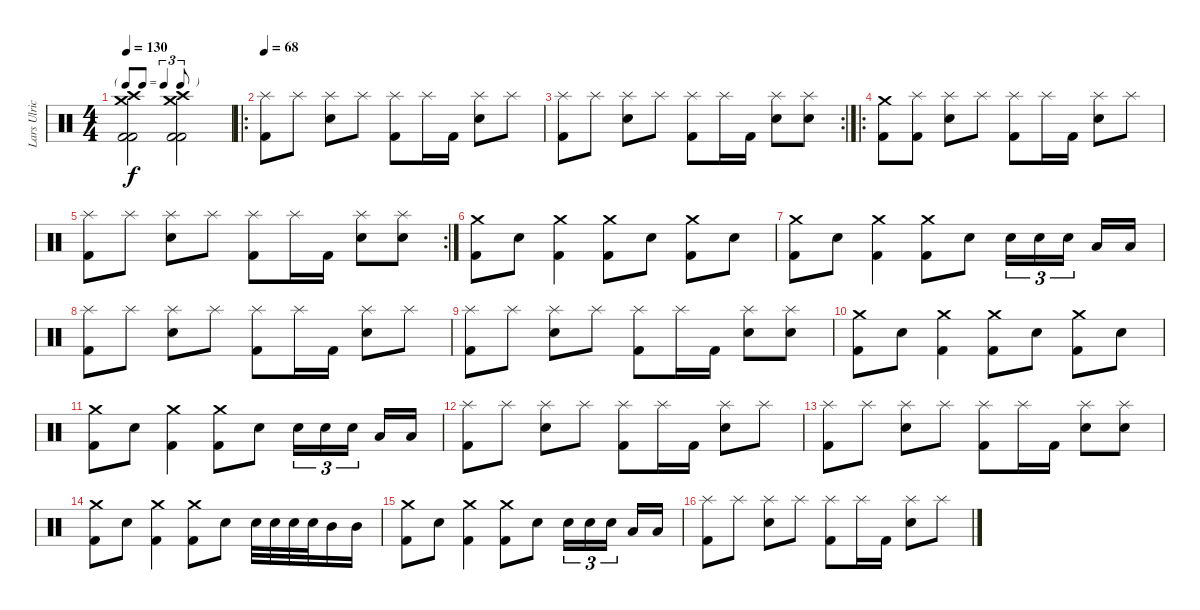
\track ("Lars Ulrich" "Lars Ulric") {instrument percussion}
\staff {score}
\articulation defaults
\ts (4 4)
\tf triplet8th
\tempo 130
\clef neutral
\ks c
("Crash medium (hit)" "Crash high (hit)" "Kick (hit) 2" "Kick (hit) 2").2{dy f} ("Crash medium (hit)" "Crash high (hit)" "Kick (hit) 2" "Kick (hit) 2").2 |
\ro
\tempo 68
("Splash (hit)" "Kick (hit) 2").8 "Splash (hit)".8 ("Splash (hit)" "Snare (hit) 2").8 "Splash (hit)".8 ("Splash (hit)" "Kick (hit) 2").8 "Splash (hit)".16 "Kick (hit) 2".16 ("Splash (hit)" "Snare (hit) 2").8 "Splash (hit)".8 |
\rc 2
("Splash (hit)" "Kick (hit) 2").8 "Splash (hit)".8 ("Splash (hit)" "Snare (hit) 2").8 "Splash (hit)".8 ("Splash (hit)" "Kick (hit) 2").8 "Splash (hit)".16 "Kick (hit) 2".16 ("Splash (hit)" "Snare (hit) 2").8 ("Splash (hit)" "Snare (hit) 2").8 |
\ro
("Crash medium (hit)" "Kick (hit) 2").8 ("Splash (hit)" "Kick (hit) 2").8 ("Splash (hit)" "Snare (hit) 2").8 "Splash (hit)".8 ("Splash (hit)" "Kick (hit) 2").8 "Splash (hit)".16 "Kick (hit) 2".16 ("Splash (hit)" "Snare (hit) 2").8 "Splash (hit)".8 |
\rc 2
("Splash (hit)" "Kick (hit) 2").8 "Splash (hit)".8 ("Splash (hit)" "Snare (hit) 2").8 "Splash (hit)".8 ("Splash (hit)" "Kick (hit) 2").8 "Splash (hit)".16 "Kick (hit) 2".16 ("Splash (hit)" "Snare (hit) 2").8 ("Splash (hit)" "Snare (hit) 2").8 |
("Crash medium (hit)" "Kick (hit) 2").8 "Snare (hit) 2".8 ("Crash medium (hit)" "Kick (hit) 2").4 ("Crash medium (hit)" "Kick (hit) 2").8 "Snare (hit) 2".8 ("Crash medium (hit)" "Kick (hit) 2").8 "Snare (hit) 2".8 |
("Crash medium (hit)" "Kick (hit) 2").8 "Snare (hit) 2".8 ("Crash medium (hit)" "Kick (hit) 2").4 ("Crash medium (hit)" "Kick (hit) 2").8 "Snare (hit) 2".8 "Snare (hit) 2".16{tu (3 2)} "Snare (hit) 2".16{tu (3 2)} "Snare (hit) 2".16{tu (3 2) beam splitsecondary} "Low Tom (hit)".16 "Low Tom (hit)".16 |
("Splash (hit)" "Kick (hit) 2").8 "Splash (hit)".8 ("Splash (hit)" "Snare (hit) 2").8 "Splash (hit)".8 ("Splash (hit)" "Kick (hit) 2").8 "Splash (hit)".16 "Kick (hit) 2".16 ("Splash (hit)" "Snare (hit) 2").8 "Splash (hit)".8 |
("Splash (hit)" "Kick (hit) 2").8 "Splash (hit)".8 ("Splash (hit)" "Snare (hit) 2").8 "Splash (hit)".8 ("Splash (hit)" "Kick (hit) 2").8 "Splash (hit)".16 "Kick (hit) 2".16 ("Splash (hit)" "Snare (hit) 2").8 ("Splash (hit)" "Snare (hit) 2").8 |
("Crash medium (hit)" "Kick (hit) 2").8 "Snare (hit) 2".8 ("Crash medium (hit)" "Kick (hit) 2").4 ("Crash medium (hit)" "Kick (hit) 2").8 "Snare (hit) 2".8 ("Crash medium (hit)" "Kick (hit) 2").8 "Snare (hit) 2".8 |
("Crash medium (hit)" "Kick (hit) 2").8 "Snare (hit) 2".8 ("Crash medium (hit)" "Kick (hit) 2").4 ("Crash medium (hit)" "Kick (hit) 2").8 "Snare (hit) 2".8 "Snare (hit) 2".16{tu (3 2)} "Snare (hit) 2".16{tu (3 2)} "Snare (hit) 2".16{tu (3 2) beam splitsecondary} "Low Tom (hit)".16 "Low Tom (hit)".16 |
("Splash (hit)" "Kick (hit) 2").8 "Splash (hit)".8 ("Splash (hit)" "Snare (hit) 2").8 "Splash (hit)".8 ("Splash (hit)" "Kick (hit) 2").8 "Splash (hit)".16 "Kick (hit) 2".16 ("Splash (hit)" "Snare (hit) 2").8 "Splash (hit)".8 |
("Splash (hit)" "Kick (hit) 2").8 "Splash (hit)".8 ("Splash (hit)" "Snare (hit) 2").8 "Splash (hit)".8 ("Splash (hit)" "Kick (hit) 2").8 "Splash (hit)".16 "Kick (hit) 2".16 ("Splash (hit)" "Snare (hit) 2").8 ("Splash (hit)" "Snare (hit) 2").8 |
("Crash medium (hit)" "Kick (hit) 2").8 "Snare (hit) 2".8 ("Crash medium (hit)" "Kick (hit) 2").4 ("Crash medium (hit)" "Kick (hit) 2").8 "Snare (hit) 2".8 "Snare (hit) 2".32 "Snare (hit) 2".32 "Snare (hit) 2".32 "Snare (hit) 2".32 "Mid Tom (hit)".16 "Mid Tom (hit)".16 |
("Crash medium (hit)" "Kick (hit) 2").8 "Snare (hit) 2".8 ("Crash medium (hit)" "Kick (hit) 2").4 ("Crash medium (hit)" "Kick (hit) 2").8 "Snare (hit) 2".8 "Snare (hit) 2".16{tu (3 2)} "Snare (hit) 2".16{tu (3 2)} "Snare (hit) 2".16{tu (3 2) beam splitsecondary} "Low Tom (hit)".16 "Low Tom (hit)".16 |
("Splash (hit)" "Kick (hit) 2").8 "Splash (hit)".8 ("Splash (hit)" "Snare (hit) 2").8 "Splash (hit)".8 ("Splash (hit)" "Kick (hit) 2").8 "Splash (hit)".16 "Kick (hit) 2".16 ("Splash (hit)" "Snare (hit) 2").8 "Splash (hit)".8
